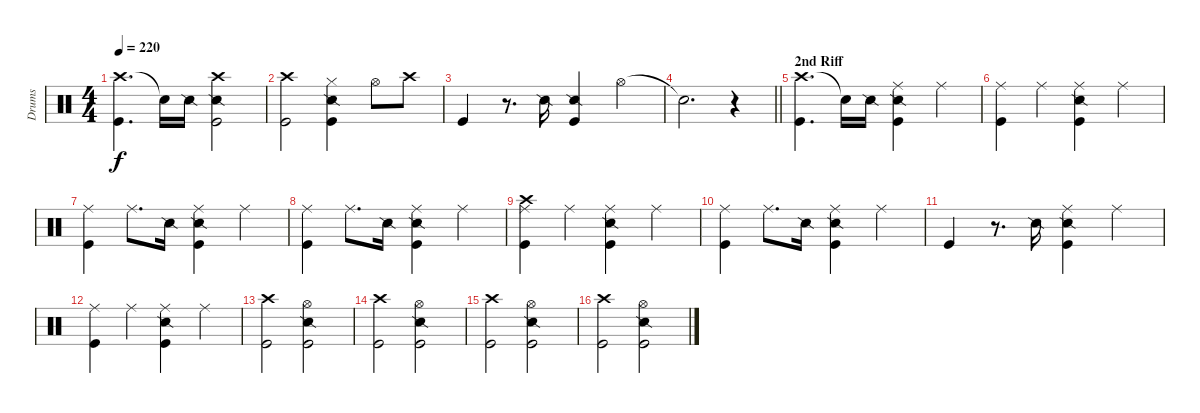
\track ("Drums" "Drums") {instrument percussion}
\staff {score}
\articulation defaults
\ts (4 4)
\tempo 220
\clef neutral
\ks c
("Crash high (hit)" "Kick (hit)").4{d dy f} "Snare (hit)"{t}.16 "Snare (side stick) 2".16 ("Crash high (hit)" "Snare (side stick) 2" "Kick (hit)").2 |
("Crash high (hit)" "Kick (hit)").2 ("Hi-Hat (closed)" "Snare (side stick) 2" "Kick (hit)").4 "Hi-Hat (open)".8 "Crash high (hit)".8 |
"Kick (hit)".4 r.8{d} "Snare (side stick) 2".16 ("Snare (side stick) 2" "Kick (hit)").4 "Hi-Hat (open)".4 |
\barLineRight lightlight "Snare (hit)"{t}.2{d}
r.4 |
\section ("" "2nd Riff")
("Crash high (hit)" "Kick (hit)").4{d} "Snare (hit)"{t}.16 "Snare (side stick) 2".16 ("Ride (middle)" "Snare (side stick) 2" "Kick (hit)").4 "Ride (middle)".4 |
("Ride (middle)" "Kick (hit)").4 "Ride (middle)".4 ("Ride (middle)" "Snare (side stick) 2" "Kick (hit)").4 "Ride (middle)".4 |
("Ride (middle)" "Kick (hit)").4 "Ride (middle)".8{d} "Snare (side stick) 2".16 ("Ride (middle)" "Snare (side stick) 2" "Kick (hit)").4 "Ride (middle)".4 |
("Ride (middle)" "Kick (hit)").4 "Ride (middle)".8{d} "Snare (side stick) 2".16 ("Ride (middle)" "Snare (side stick) 2" "Kick (hit)").4 "Ride (middle)".4 |
("Ride (middle)" "Crash high (hit)" "Kick (hit)").4 "Ride (middle)".4 ("Ride (middle)" "Snare (side stick) 2" "Kick (hit)").4 "Ride (middle)".4 |
("Ride (middle)" "Kick (hit)").4 "Ride (middle)".8{d} "Snare (side stick) 2".16 ("Ride (middle)" "Snare (side stick) 2" "Kick (hit)").4 "Ride (middle)".4 |
"Kick (hit)".4 r.8{d} "Snare (side stick) 2".16 ("Ride (middle)" "Snare (side stick) 2" "Kick (hit)").4 "Ride (middle)".4 |
("Ride (middle)" "Kick (hit)").4 "Ride (middle)".4 ("Ride (middle)" "Snare (side stick) 2" "Kick (hit)").4 "Ride (middle)".4 |
("Crash high (hit)" "Kick (hit)").2 ("Hi-Hat (open)" "Snare (side stick) 2" "Kick (hit)").2 |
("Crash high (hit)" "Kick (hit)").2 ("Hi-Hat (open)" "Snare (side stick) 2" "Kick (hit)").2 |
("Crash high (hit)" "Kick (hit)").2 ("Hi-Hat (open)" "Snare (side stick) 2" "Kick (hit)").2 |
("Crash high (hit)" "Kick (hit)").2 ("Hi-Hat (open)" "Snare (side stick) 2" "Kick (hit)").2
